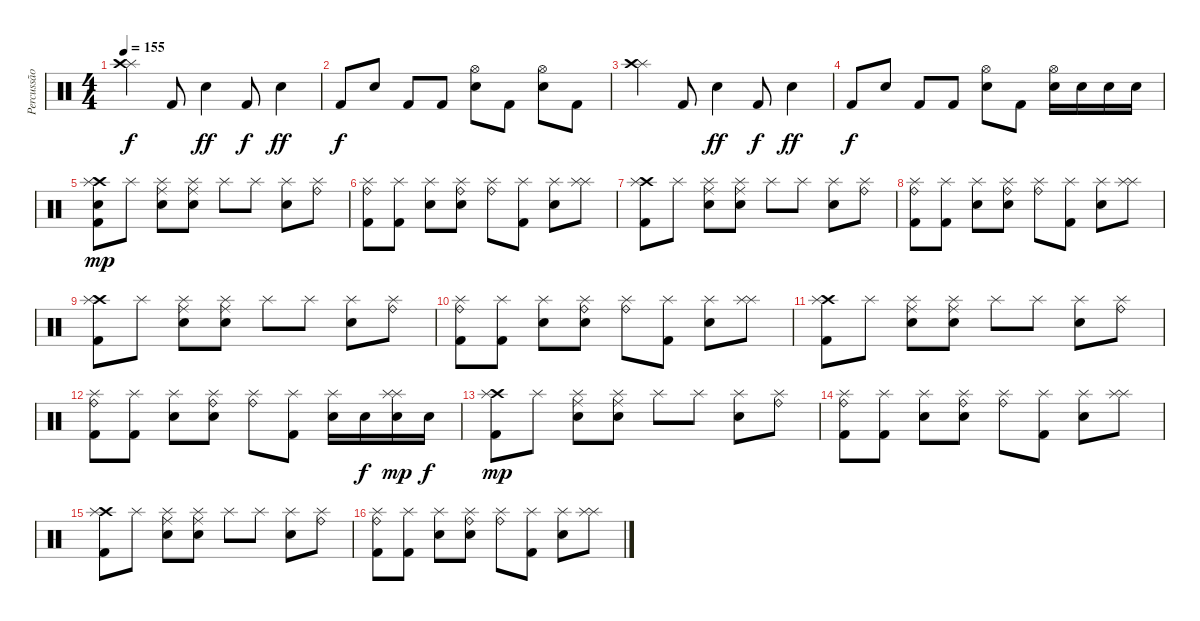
\track ("Percussão" "Percussão") {instrument percussion}
\staff {score}
\articulation defaults
\ts (4 4)
\tempo 155
\clef neutral
\ks c
("Splash (hit)" "Crash high (hit)").4{dy f} "Kick (hit) 2".8 "Electric Snare (hit)".4{dy ff} "Kick (hit) 2".8{dy f} "Electric Snare (hit)".4{dy ff} |
"Kick (hit) 2".8{dy f} "Electric Snare (hit)".8 "Kick (hit) 2".8 "Kick (hit) 2".8 ("Hi-Hat (open)" "Electric Snare (hit)").8 "Kick (hit) 2".8 ("Hi-Hat (open)" "Electric Snare (hit)").8 "Kick (hit) 2".8 |
("Splash (hit)" "Crash high (hit)").4 "Kick (hit) 2".8 "Electric Snare (hit)".4{dy ff} "Kick (hit) 2".8{dy f} "Electric Snare (hit)".4{dy ff} |
"Kick (hit) 2".8{dy f} "Electric Snare (hit)".8 "Kick (hit) 2".8 "Kick (hit) 2".8 ("Hi-Hat (open)" "Electric Snare (hit)").8 "Kick (hit) 2".8 ("Hi-Hat (open)" "Electric Snare (hit)").16 "Electric Snare (hit)".16 "Electric Snare (hit)".16 "Electric Snare (hit)".16 |
("Crash high (hit)" "Electric Snare (hit)" "Kick (hit) 2" "Splash (hit)").8{dy mp} "Splash (hit)".8 ("Ride (middle)" "Electric Snare (hit)" "Splash (hit)").8 ("Ride (middle)" "Electric Snare (hit)" "Splash (hit)").8 "Splash (hit)".8 "Splash (hit)".8 ("Electric Snare (hit)" "Splash (hit)").8 ("Ride (bell)" "Splash (hit)").8 |
("Ride (bell)" "Kick (hit) 2" "Splash (hit)").8 ("Kick (hit) 2" "Splash (hit)").8 ("Electric Snare (hit)" "Splash (hit)").8 ("Ride (bell)" "Electric Snare (hit)" "Splash (hit)").8 ("Ride (bell)" "Splash (hit)").8 ("Kick (hit) 2" "Splash (hit)").8 ("Electric Snare (hit)" "Splash (hit)").8 ("Splash (hit)" "Splash (hit)").8 |
("Crash high (hit)" "Kick (hit) 2" "Splash (hit)").8 "Splash (hit)".8 ("Ride (middle)" "Electric Snare (hit)" "Splash (hit)").8 ("Ride (middle)" "Electric Snare (hit)" "Splash (hit)").8 "Splash (hit)".8 "Splash (hit)".8 ("Electric Snare (hit)" "Splash (hit)").8 ("Ride (bell)" "Splash (hit)").8 |
("Ride (bell)" "Kick (hit) 2" "Splash (hit)").8 ("Kick (hit) 2" "Splash (hit)").8 ("Electric Snare (hit)" "Splash (hit)").8 ("Ride (bell)" "Electric Snare (hit)" "Splash (hit)").8 ("Ride (bell)" "Splash (hit)").8 ("Kick (hit) 2" "Splash (hit)").8 ("Electric Snare (hit)" "Splash (hit)").8 ("Splash (hit)" "Splash (hit)").8 |
("Crash high (hit)" "Kick (hit) 2" "Splash (hit)").8 "Splash (hit)".8 ("Ride (middle)" "Electric Snare (hit)" "Splash (hit)").8 ("Ride (middle)" "Electric Snare (hit)" "Splash (hit)").8 "Splash (hit)".8 "Splash (hit)".8 ("Electric Snare (hit)" "Splash (hit)").8 ("Ride (bell)" "Splash (hit)").8 |
("Ride (bell)" "Kick (hit) 2" "Splash (hit)").8 ("Kick (hit) 2" "Splash (hit)").8 ("Electric Snare (hit)" "Splash (hit)").8 ("Ride (bell)" "Electric Snare (hit)" "Splash (hit)").8 ("Ride (bell)" "Splash (hit)").8 ("Kick (hit) 2" "Splash (hit)").8 ("Electric Snare (hit)" "Splash (hit)").8 ("Splash (hit)" "Splash (hit)").8 |
("Crash high (hit)" "Kick (hit) 2" "Splash (hit)").8 "Splash (hit)".8 ("Ride (middle)" "Electric Snare (hit)" "Splash (hit)").8 ("Ride (middle)" "Electric Snare (hit)" "Splash (hit)").8 "Splash (hit)".8 "Splash (hit)".8 ("Electric Snare (hit)" "Splash (hit)").8 ("Ride (bell)" "Splash (hit)").8 |
("Ride (bell)" "Kick (hit) 2" "Splash (hit)").8 ("Kick (hit) 2" "Splash (hit)").8 ("Electric Snare (hit)" "Splash (hit)").8 ("Ride (bell)" "Electric Snare (hit)" "Splash (hit)").8 ("Ride (bell)" "Splash (hit)").8 ("Kick (hit) 2" "Splash (hit)").8 ("Electric Snare (hit)" "Splash (hit)").16 "Electric Snare (hit)".16{dy f} ("Splash (hit)" "Electric Snare (hit)" "Splash (hit)").16{dy mp} "Electric Snare (hit)".16{dy f} |
("Crash high (hit)" "Kick (hit) 2" "Splash (hit)").8{dy mp} "Splash (hit)".8 ("Ride (middle)" "Electric Snare (hit)" "Splash (hit)").8 ("Ride (middle)" "Electric Snare (hit)" "Splash (hit)").8 "Splash (hit)".8 "Splash (hit)".8 ("Electric Snare (hit)" "Splash (hit)").8 ("Ride (bell)" "Splash (hit)").8 |
("Ride (bell)" "Kick (hit) 2" "Splash (hit)").8 ("Kick (hit) 2" "Splash (hit)").8 ("Electric Snare (hit)" "Splash (hit)").8 ("Ride (bell)" "Electric Snare (hit)" "Splash (hit)").8 ("Ride (bell)" "Splash (hit)").8 ("Kick (hit) 2" "Splash (hit)").8 ("Electric Snare (hit)" "Splash (hit)").8 ("Splash (hit)" "Splash (hit)").8 |
("Crash high (hit)" "Kick (hit) 2" "Splash (hit)").8 "Splash (hit)".8 ("Ride (middle)" "Electric Snare (hit)" "Splash (hit)").8 ("Ride (middle)" "Electric Snare (hit)" "Splash (hit)").8 "Splash (hit)".8 "Splash (hit)".8 ("Electric Snare (hit)" "Splash (hit)").8 ("Ride (bell)" "Splash (hit)").8 |
("Ride (bell)" "Kick (hit) 2" "Splash (hit)").8 ("Kick (hit) 2" "Splash (hit)").8 ("Electric Snare (hit)" "Splash (hit)").8 ("Ride (bell)" "Electric Snare (hit)" "Splash (hit)").8 ("Ride (bell)" "Splash (hit)").8 ("Kick (hit) 2" "Splash (hit)").8 ("Electric Snare (hit)" "Splash (hit)").8 ("Splash (hit)" "Splash (hit)").8
